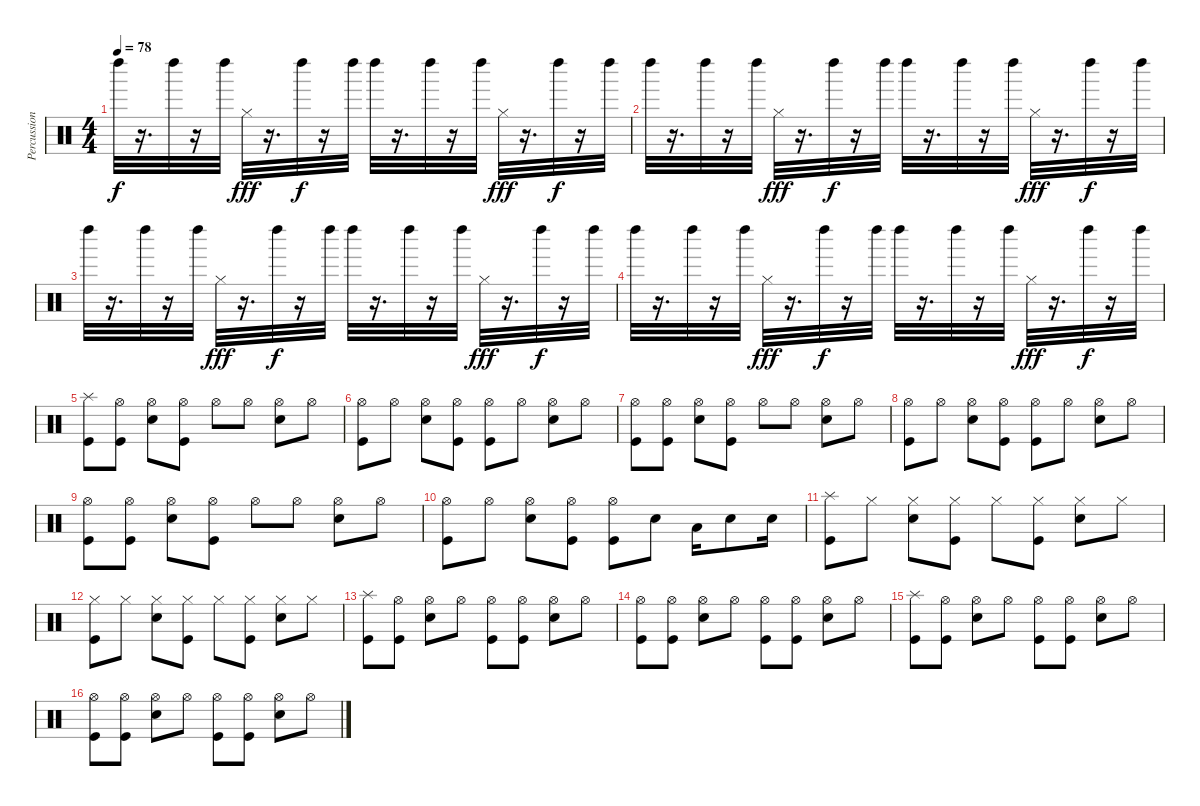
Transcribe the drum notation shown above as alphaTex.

\track ("Percussion" "Percussion") {instrument percussion}
\staff {score}
\articulation defaults
\ts (4 4)
\tempo 78
\clef neutral
\ks c "Left Maraca (hit)".32{dy f}
r.16{d} "Left Maraca (hit)".32 r.16 "Left Maraca (hit)".32 "Hi-Hat (closed)".32{dy fff} r.16{d} "Left Maraca (hit)".32{dy f} r.16 "Left Maraca (hit)".32 "Left Maraca (hit)".32 r.16{d} "Left Maraca (hit)".32 r.16 "Left Maraca (hit)".32 "Hi-Hat (closed)".32{dy fff} r.16{d} "Left Maraca (hit)".32{dy f} r.16 "Left Maraca (hit)".32 |
"Left Maraca (hit)".32 r.16{d} "Left Maraca (hit)".32 r.16 "Left Maraca (hit)".32 "Hi-Hat (closed)".32{dy fff} r.16{d} "Left Maraca (hit)".32{dy f} r.16 "Left Maraca (hit)".32 "Left Maraca (hit)".32 r.16{d} "Left Maraca (hit)".32 r.16 "Left Maraca (hit)".32 "Hi-Hat (closed)".32{dy fff} r.16{d} "Left Maraca (hit)".32{dy f} r.16 "Left Maraca (hit)".32 |
"Left Maraca (hit)".32 r.16{d} "Left Maraca (hit)".32 r.16 "Left Maraca (hit)".32 "Hi-Hat (closed)".32{dy fff} r.16{d} "Left Maraca (hit)".32{dy f} r.16 "Left Maraca (hit)".32 "Left Maraca (hit)".32 r.16{d} "Left Maraca (hit)".32 r.16 "Left Maraca (hit)".32 "Hi-Hat (closed)".32{dy fff} r.16{d} "Left Maraca (hit)".32{dy f} r.16 "Left Maraca (hit)".32 |
"Left Maraca (hit)".32 r.16{d} "Left Maraca (hit)".32 r.16 "Left Maraca (hit)".32 "Hi-Hat (closed)".32{dy fff} r.16{d} "Left Maraca (hit)".32{dy f} r.16 "Left Maraca (hit)".32 "Left Maraca (hit)".32 r.16{d} "Left Maraca (hit)".32 r.16 "Left Maraca (hit)".32 "Hi-Hat (closed)".32{dy fff} r.16{d} "Left Maraca (hit)".32{dy f} r.16 "Left Maraca (hit)".32 |
("Splash (hit)" "Kick (hit)").8 ("Hi-Hat (open)" "Kick (hit)").8 ("Hi-Hat (open)" "Snare (hit) 2").8 ("Hi-Hat (open)" "Kick (hit)").8 "Hi-Hat (open)".8 "Hi-Hat (open)".8 ("Hi-Hat (open)" "Snare (hit) 2").8 "Hi-Hat (open)".8 |
("Hi-Hat (open)" "Kick (hit)").8 "Hi-Hat (open)".8 ("Hi-Hat (open)" "Snare (hit) 2").8 ("Hi-Hat (open)" "Kick (hit)").8 ("Hi-Hat (open)" "Kick (hit)").8 "Hi-Hat (open)".8 ("Hi-Hat (open)" "Snare (hit) 2").8 "Hi-Hat (open)".8 |
("Hi-Hat (open)" "Kick (hit)").8 ("Hi-Hat (open)" "Kick (hit)").8 ("Hi-Hat (open)" "Snare (hit) 2").8 ("Hi-Hat (open)" "Kick (hit)").8 "Hi-Hat (open)".8 "Hi-Hat (open)".8 ("Hi-Hat (open)" "Snare (hit) 2").8 "Hi-Hat (open)".8 |
("Hi-Hat (open)" "Kick (hit)").8 "Hi-Hat (open)".8 ("Hi-Hat (open)" "Snare (hit) 2").8 ("Hi-Hat (open)" "Kick (hit)").8 ("Hi-Hat (open)" "Kick (hit)").8 "Hi-Hat (open)".8 ("Hi-Hat (open)" "Snare (hit) 2").8 "Hi-Hat (open)".8 |
("Hi-Hat (open)" "Kick (hit)").8 ("Hi-Hat (open)" "Kick (hit)").8 ("Hi-Hat (open)" "Snare (hit) 2").8 ("Hi-Hat (open)" "Kick (hit)").8 "Hi-Hat (open)".8 "Hi-Hat (open)".8 ("Hi-Hat (open)" "Snare (hit) 2").8 "Hi-Hat (open)".8 |
("Hi-Hat (open)" "Kick (hit)").8 "Hi-Hat (open)".8 ("Hi-Hat (open)" "Snare (hit) 2").8 ("Hi-Hat (open)" "Kick (hit)").8 ("Hi-Hat (open)" "Kick (hit)").8 "Snare (hit) 2".8 "Low Tom (hit)".16 "Snare (hit) 2".8 "Snare (hit) 2".16 |
("Splash (hit)" "Kick (hit)").8 "Hi-Hat (closed)".8 ("Hi-Hat (closed)" "Snare (hit) 2").8 ("Hi-Hat (closed)" "Kick (hit)").8 "Hi-Hat (closed)".8 ("Hi-Hat (closed)" "Kick (hit)").8 ("Hi-Hat (closed)" "Snare (hit) 2").8 "Hi-Hat (closed)".8 |
("Hi-Hat (closed)" "Kick (hit)").8 "Hi-Hat (closed)".8 ("Hi-Hat (closed)" "Snare (hit) 2").8 ("Hi-Hat (closed)" "Kick (hit)").8 "Hi-Hat (closed)".8 ("Hi-Hat (closed)" "Kick (hit)").8 ("Hi-Hat (closed)" "Snare (hit) 2").8 "Hi-Hat (closed)".8 |
("Splash (hit)" "Kick (hit)").8 ("Hi-Hat (open)" "Kick (hit)").8 ("Hi-Hat (open)" "Snare (hit) 2").8 "Hi-Hat (open)".8 ("Hi-Hat (open)" "Kick (hit)").8 ("Hi-Hat (open)" "Kick (hit)").8 ("Hi-Hat (open)" "Snare (hit) 2").8 "Hi-Hat (open)".8 |
("Hi-Hat (open)" "Kick (hit)").8 ("Hi-Hat (open)" "Kick (hit)").8 ("Hi-Hat (open)" "Snare (hit) 2").8 "Hi-Hat (open)".8 ("Hi-Hat (open)" "Kick (hit)").8 ("Hi-Hat (open)" "Kick (hit)").8 ("Hi-Hat (open)" "Snare (hit) 2").8 "Hi-Hat (open)".8 |
("Splash (hit)" "Kick (hit)").8 ("Hi-Hat (open)" "Kick (hit)").8 ("Hi-Hat (open)" "Snare (hit) 2").8 "Hi-Hat (open)".8 ("Hi-Hat (open)" "Kick (hit)").8 ("Hi-Hat (open)" "Kick (hit)").8 ("Hi-Hat (open)" "Snare (hit) 2").8 "Hi-Hat (open)".8 |
("Hi-Hat (open)" "Kick (hit)").8 ("Hi-Hat (open)" "Kick (hit)").8 ("Hi-Hat (open)" "Snare (hit) 2").8 "Hi-Hat (open)".8 ("Hi-Hat (open)" "Kick (hit)").8 ("Hi-Hat (open)" "Kick (hit)").8 ("Hi-Hat (open)" "Snare (hit) 2").8 "Hi-Hat (open)".8
